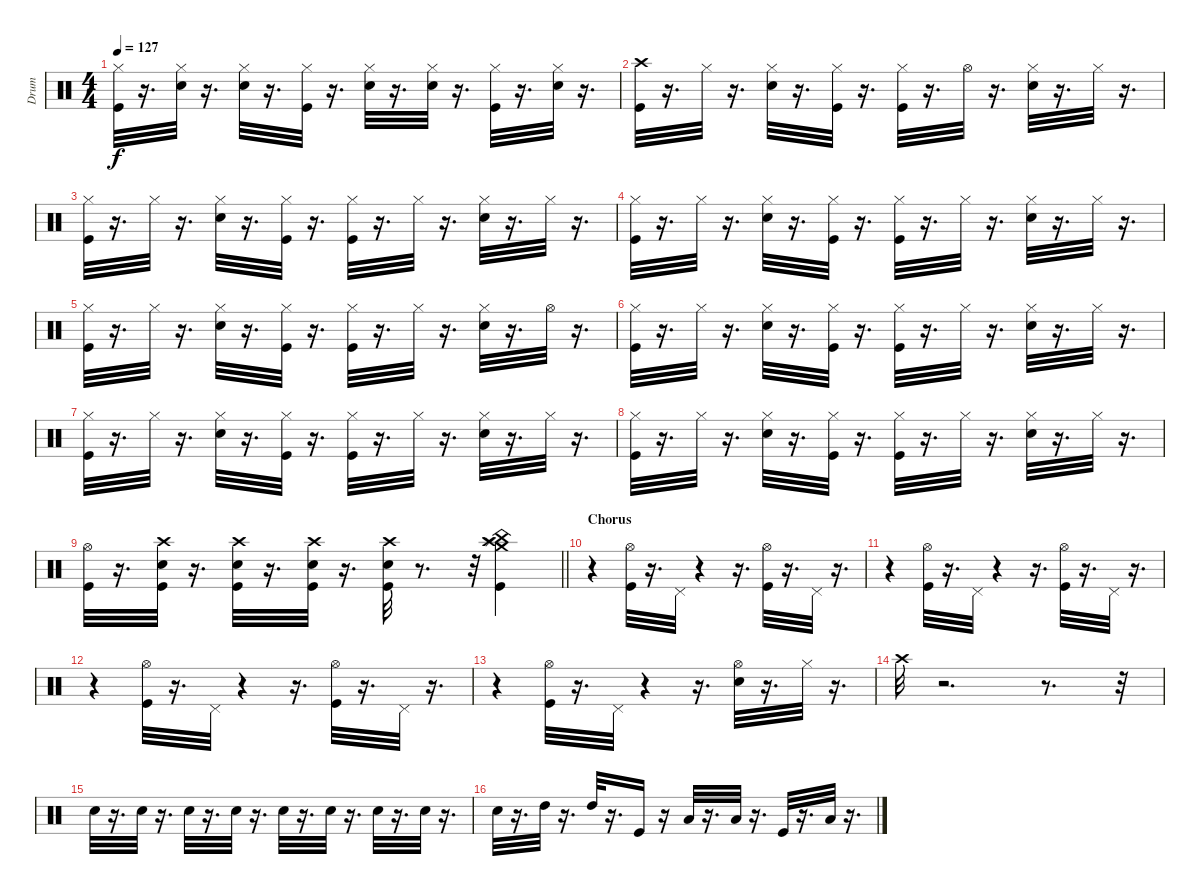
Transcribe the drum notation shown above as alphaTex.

\track ("Drum" "Drum") {instrument percussion}
\staff {score}
\articulation defaults
\ts (4 4)
\tempo 127
\clef neutral
\ks c
("Kick (hit)" "Hi-Hat (closed)").32{dy f} r.16{d} ("Hi-Hat (closed)" "Snare (hit) 2").32 r.16{d} ("Snare (hit) 2" "Hi-Hat (closed)").32 r.16{d} ("Kick (hit)" "Hi-Hat (closed)").32 r.16{d} ("Hi-Hat (closed)" "Snare (hit) 2").32 r.16{d} ("Hi-Hat (closed)" "Snare (hit) 2").32 r.16{d} ("Hi-Hat (closed)" "Kick (hit)").32 r.16{d} ("Hi-Hat (closed)" "Snare (hit) 2").32 r.16{d} |
("Kick (hit)" "Crash high (hit)").32 r.16{d} "Hi-Hat (closed)".32 r.16{d} ("Snare (hit) 2" "Hi-Hat (closed)").32 r.16{d} ("Kick (hit)" "Hi-Hat (closed)").32 r.16{d} ("Hi-Hat (closed)" "Kick (hit)").32 r.16{d} "Hi-Hat (open)".32 r.16{d} ("Snare (hit) 2" "Hi-Hat (closed)").32 r.16{d} "Hi-Hat (closed)".32 r.16{d} |
("Kick (hit)" "Hi-Hat (closed)").32 r.16{d} "Hi-Hat (closed)".32 r.16{d} ("Snare (hit) 2" "Hi-Hat (closed)").32 r.16{d} ("Kick (hit)" "Hi-Hat (closed)").32 r.16{d} ("Hi-Hat (closed)" "Kick (hit)").32 r.16{d} "Hi-Hat (closed)".32 r.16{d} ("Snare (hit) 2" "Hi-Hat (closed)").32 r.16{d} "Hi-Hat (closed)".32 r.16{d} |
("Kick (hit)" "Hi-Hat (closed)").32 r.16{d} "Hi-Hat (closed)".32 r.16{d} ("Snare (hit) 2" "Hi-Hat (closed)").32 r.16{d} ("Kick (hit)" "Hi-Hat (closed)").32 r.16{d} ("Hi-Hat (closed)" "Kick (hit)").32 r.16{d} "Hi-Hat (closed)".32 r.16{d} ("Snare (hit) 2" "Hi-Hat (closed)").32 r.16{d} "Hi-Hat (closed)".32 r.16{d} |
("Kick (hit)" "Hi-Hat (closed)").32 r.16{d} "Hi-Hat (closed)".32 r.16{d} ("Snare (hit) 2" "Hi-Hat (closed)").32 r.16{d} ("Kick (hit)" "Hi-Hat (closed)").32 r.16{d} ("Hi-Hat (closed)" "Kick (hit)").32 r.16{d} "Hi-Hat (closed)".32 r.16{d} ("Snare (hit) 2" "Hi-Hat (closed)").32 r.16{d} "Hi-Hat (open)".32 r.16{d} |
("Kick (hit)" "Hi-Hat (closed)").32 r.16{d} "Hi-Hat (closed)".32 r.16{d} ("Snare (hit) 2" "Hi-Hat (closed)").32 r.16{d} ("Kick (hit)" "Hi-Hat (closed)").32 r.16{d} ("Hi-Hat (closed)" "Kick (hit)").32 r.16{d} "Hi-Hat (closed)".32 r.16{d} ("Snare (hit) 2" "Hi-Hat (closed)").32 r.16{d} "Hi-Hat (closed)".32 r.16{d} |
("Kick (hit)" "Hi-Hat (closed)").32 r.16{d} "Hi-Hat (closed)".32 r.16{d} ("Snare (hit) 2" "Hi-Hat (closed)").32 r.16{d} ("Kick (hit)" "Hi-Hat (closed)").32 r.16{d} ("Hi-Hat (closed)" "Kick (hit)").32 r.16{d} "Hi-Hat (closed)".32 r.16{d} ("Snare (hit) 2" "Hi-Hat (closed)").32 r.16{d} "Hi-Hat (closed)".32 r.16{d} |
("Kick (hit)" "Hi-Hat (closed)").32 r.16{d} "Hi-Hat (closed)".32 r.16{d} ("Snare (hit) 2" "Hi-Hat (closed)").32 r.16{d} ("Kick (hit)" "Hi-Hat (closed)").32 r.16{d} ("Hi-Hat (closed)" "Kick (hit)").32 r.16{d} "Hi-Hat (closed)".32 r.16{d} ("Snare (hit) 2" "Hi-Hat (closed)").32 r.16{d} "Hi-Hat (closed)".32 r.16{d} |
\barLineRight lightlight
("Kick (hit)" "Hi-Hat (open)").32 r.16{d} ("Crash high (hit)" "Kick (hit)" "Snare (hit) 2").32 r.16{d} ("Snare (hit) 2" "Crash high (hit)" "Kick (hit)").32 r.16{d} ("Snare (hit) 2" "Kick (hit)" "Crash high (hit)").32 r.16{d} ("Snare (hit) 2" "Kick (hit)" "Crash high (hit)").32 r.8{d} r.32 ("Crash medium (hit)" "Kick (hit)" "Splash (hit)" "China (hit)" "Crash high (hit)").4 |
\section ("" "Chorus")
r.4 ("Hi-Hat (open)" "Kick (hit)").32 r.16{d} "Pedal Hi-Hat (hit)".32 r.4 r.16{d} ("Kick (hit)" "Hi-Hat (open)").32 r.16{d} "Pedal Hi-Hat (hit)".32 r.16{d} |
r.4 ("Kick (hit)" "Hi-Hat (open)").32 r.16{d} "Pedal Hi-Hat (hit)".32 r.4 r.16{d} ("Kick (hit)" "Hi-Hat (open)").32 r.16{d} "Pedal Hi-Hat (hit)".32 r.16{d} |
r.4 ("Kick (hit)" "Hi-Hat (open)").32 r.16{d} "Pedal Hi-Hat (hit)".32 r.4 r.16{d} ("Kick (hit)" "Hi-Hat (open)").32 r.16{d} "Pedal Hi-Hat (hit)".32 r.16{d} |
r.4 ("Kick (hit)" "Hi-Hat (open)").32 r.16{d} "Pedal Hi-Hat (hit)".32 r.4 r.16{d} ("Snare (hit) 2" "Hi-Hat (open)").32 r.16{d} "Hi-Hat (closed)".32 r.16{d} |
"Crash high (hit)".32 r.2{d} r.8{d} r.32 |
"Snare (hit) 2".32{volume 9} r.16{d} "Snare (hit) 2".32 r.16{d} "Snare (hit) 2".32 r.16{d} "Snare (hit) 2".32 r.16{d} "Snare (hit) 2".32{volume 10} r.16{d} "Snare (hit) 2".32 r.16{d} "Snare (hit) 2".32 r.16{d} "Snare (hit) 2".32 r.16{d} |
"Snare (hit) 2".32 r.16{d} "High Tom (hit)".32{volume 16} r.16{d} "High Tom (hit)".32 r.16{d} "Kick (hit)".16 r.16 "Low Tom (hit)".32 r.16{d} "Low Tom (hit)".32 r.16{d} "Kick (hit)".32 r.16{d} "Low Tom (hit)".32 r.16{d}
